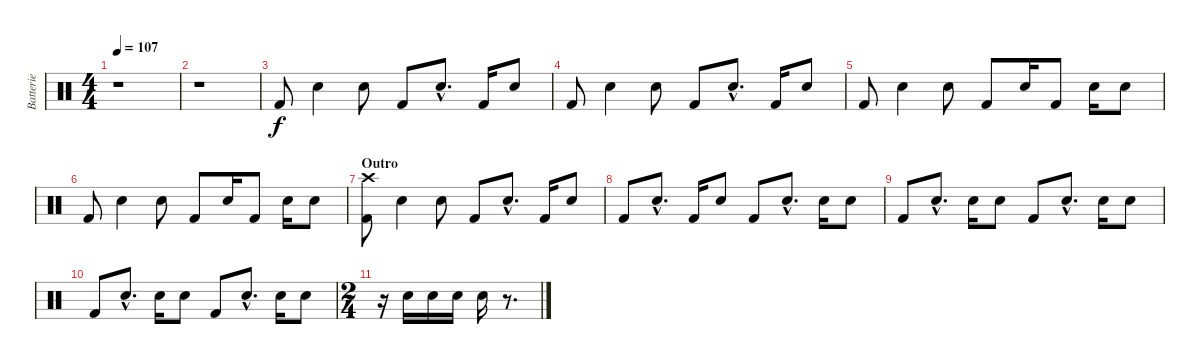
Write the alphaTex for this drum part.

\track ("Batterie" "Batterie") {instrument percussion}
\staff {score}
\articulation defaults
\ts (4 4)
\tempo 107
\clef neutral
\ks c
r.1{dy f} |
r.1 |
"Kick (hit) 2".8 "Electric Snare (hit)".4 "Electric Snare (hit)".8 "Kick (hit) 2".8 "Electric Snare (hit)"{hac}.8{d} "Kick (hit) 2".16 "Electric Snare (hit)".8 |
"Kick (hit) 2".8 "Electric Snare (hit)".4 "Electric Snare (hit)".8 "Kick (hit) 2".8 "Electric Snare (hit)"{hac}.8{d} "Kick (hit) 2".16 "Electric Snare (hit)".8 |
"Kick (hit) 2".8 "Electric Snare (hit)".4 "Electric Snare (hit)".8 "Kick (hit) 2".8 "Electric Snare (hit)".16 "Kick (hit) 2".8 "Electric Snare (hit)".16 "Electric Snare (hit)".8 |
"Kick (hit) 2".8 "Electric Snare (hit)".4 "Electric Snare (hit)".8 "Kick (hit) 2".8 "Electric Snare (hit)".16 "Kick (hit) 2".8 "Electric Snare (hit)".16 "Electric Snare (hit)".8 |
\section ("" "Outro")
("Crash high (hit)" "Kick (hit) 2").8 "Electric Snare (hit)".4 "Electric Snare (hit)".8 "Kick (hit) 2".8 "Electric Snare (hit)"{hac}.8{d} "Kick (hit) 2".16 "Electric Snare (hit)".8 |
"Kick (hit) 2".8 "Electric Snare (hit)"{hac}.8{d} "Kick (hit) 2".16 "Electric Snare (hit)".8 "Kick (hit) 2".8 "Electric Snare (hit)"{hac}.8{d} "Electric Snare (hit)".16 "Electric Snare (hit)".8 |
"Kick (hit) 2".8 "Electric Snare (hit)"{hac}.8{d} "Electric Snare (hit)".16 "Electric Snare (hit)".8 "Kick (hit) 2".8 "Electric Snare (hit)"{hac}.8{d} "Electric Snare (hit)".16 "Electric Snare (hit)".8 |
"Kick (hit) 2".8 "Electric Snare (hit)"{hac}.8{d} "Electric Snare (hit)".16 "Electric Snare (hit)".8 "Kick (hit) 2".8 "Electric Snare (hit)"{hac}.8{d} "Electric Snare (hit)".16 "Electric Snare (hit)".8 |
\ts (2 4)
r.16 "Electric Snare (hit)".16 "Electric Snare (hit)".16 "Electric Snare (hit)".16 "Electric Snare (hit)".16 r.8{d}
